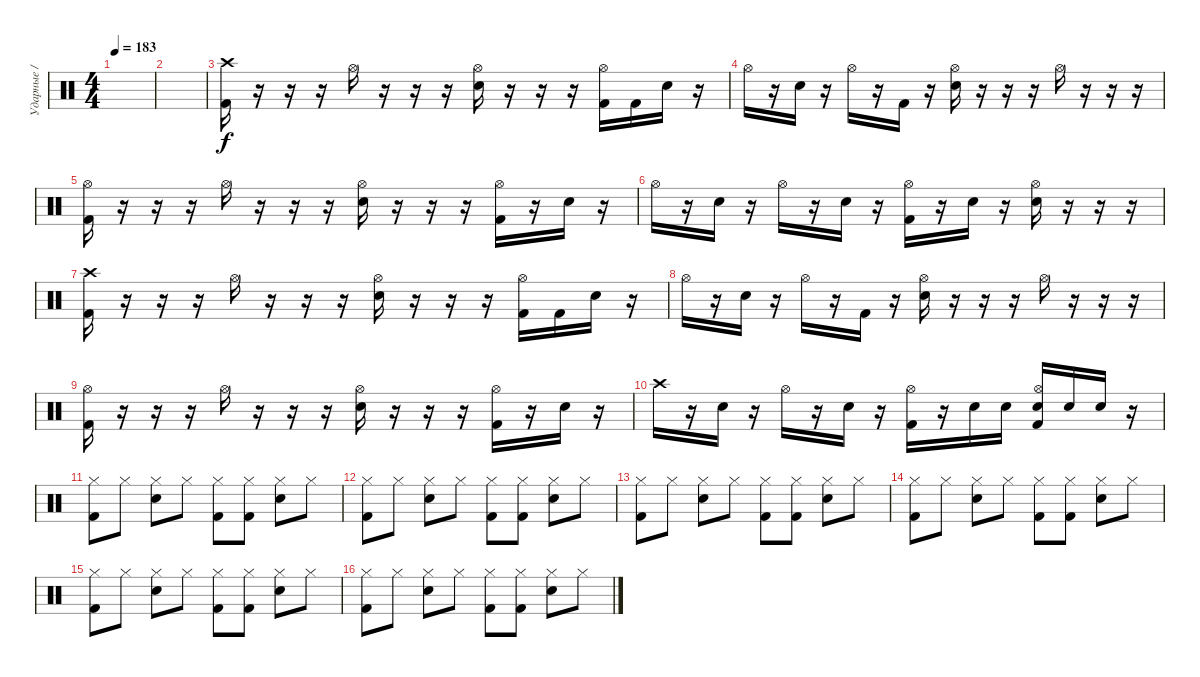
\track ("Ударные / Drums" "Ударные / ") {instrument percussion}
\staff {score}
\articulation defaults
\ts (4 4)
\tempo 183
\clef neutral
\ks c
|
|
("Crash high (hit)" "Kick (hit) 2").16 r.16 r.16 r.16 "Hi-Hat (open)".16 r.16 r.16 r.16 ("Hi-Hat (open)" "Snare (hit) 2").16 r.16 r.16 r.16 ("Hi-Hat (open)" "Kick (hit) 2").16 "Kick (hit) 2".16 "Snare (hit) 2".16 r.16 |
"Hi-Hat (open)".16 r.16 "Snare (hit) 2".16 r.16 "Hi-Hat (open)".16 r.16 "Kick (hit) 2".16 r.16 ("Hi-Hat (open)" "Snare (hit) 2").16 r.16 r.16 r.16 "Hi-Hat (open)".16 r.16 r.16 r.16 |
("Hi-Hat (open)" "Kick (hit) 2").16 r.16 r.16 r.16 "Hi-Hat (open)".16 r.16 r.16 r.16 ("Hi-Hat (open)" "Snare (hit) 2").16 r.16 r.16 r.16 ("Hi-Hat (open)" "Kick (hit) 2").16 r.16 "Snare (hit) 2".16 r.16 |
"Hi-Hat (open)".16 r.16 "Snare (hit) 2".16 r.16 "Hi-Hat (open)".16 r.16 "Snare (hit) 2".16 r.16 ("Hi-Hat (open)" "Kick (hit) 2").16 r.16 "Snare (hit) 2".16 r.16 ("Hi-Hat (open)" "Snare (hit) 2").16 r.16 r.16 r.16 |
("Crash high (hit)" "Kick (hit) 2").16 r.16 r.16 r.16 "Hi-Hat (open)".16 r.16 r.16 r.16 ("Hi-Hat (open)" "Snare (hit) 2").16 r.16 r.16 r.16 ("Hi-Hat (open)" "Kick (hit) 2").16 "Kick (hit) 2".16 "Snare (hit) 2".16 r.16 |
"Hi-Hat (open)".16 r.16 "Snare (hit) 2".16 r.16 "Hi-Hat (open)".16 r.16 "Kick (hit) 2".16 r.16 ("Hi-Hat (open)" "Snare (hit) 2").16 r.16 r.16 r.16 "Hi-Hat (open)".16 r.16 r.16 r.16 |
("Hi-Hat (open)" "Kick (hit) 2").16 r.16 r.16 r.16 "Hi-Hat (open)".16 r.16 r.16 r.16 ("Hi-Hat (open)" "Snare (hit) 2").16 r.16 r.16 r.16 ("Hi-Hat (open)" "Kick (hit) 2").16 r.16 "Snare (hit) 2".16 r.16 |
"Crash high (hit)".16 r.16 "Snare (hit) 2".16 r.16 "Hi-Hat (open)".16 r.16 "Snare (hit) 2".16 r.16 ("Hi-Hat (open)" "Kick (hit) 2").16 r.16 "Snare (hit) 2".16 "Snare (hit) 2".16 ("Hi-Hat (open)" "Snare (hit) 2" "Kick (hit) 2").16 "Snare (hit) 2".16 "Snare (hit) 2".16 r.16 |
("Hi-Hat (closed)" "Kick (hit) 2").8 "Hi-Hat (closed)".8 ("Hi-Hat (closed)" "Snare (hit) 2").8 "Hi-Hat (closed)".8 ("Hi-Hat (closed)" "Kick (hit) 2").8 ("Hi-Hat (closed)" "Kick (hit) 2").8 ("Hi-Hat (closed)" "Snare (hit) 2").8 "Hi-Hat (closed)".8 |
("Hi-Hat (closed)" "Kick (hit) 2").8 "Hi-Hat (closed)".8 ("Hi-Hat (closed)" "Snare (hit) 2").8 "Hi-Hat (closed)".8 ("Hi-Hat (closed)" "Kick (hit) 2").8 ("Hi-Hat (closed)" "Kick (hit) 2").8 ("Hi-Hat (closed)" "Snare (hit) 2").8 "Hi-Hat (closed)".8 |
("Hi-Hat (closed)" "Kick (hit) 2").8 "Hi-Hat (closed)".8 ("Hi-Hat (closed)" "Snare (hit) 2").8 "Hi-Hat (closed)".8 ("Hi-Hat (closed)" "Kick (hit) 2").8 ("Hi-Hat (closed)" "Kick (hit) 2").8 ("Hi-Hat (closed)" "Snare (hit) 2").8 "Hi-Hat (closed)".8 |
("Hi-Hat (closed)" "Kick (hit) 2").8 "Hi-Hat (closed)".8 ("Hi-Hat (closed)" "Snare (hit) 2").8 "Hi-Hat (closed)".8 ("Hi-Hat (closed)" "Kick (hit) 2").8 ("Hi-Hat (closed)" "Kick (hit) 2").8 ("Hi-Hat (closed)" "Snare (hit) 2").8 "Hi-Hat (closed)".8 |
("Hi-Hat (closed)" "Kick (hit) 2").8 "Hi-Hat (closed)".8 ("Hi-Hat (closed)" "Snare (hit) 2").8 "Hi-Hat (closed)".8 ("Hi-Hat (closed)" "Kick (hit) 2").8 ("Hi-Hat (closed)" "Kick (hit) 2").8 ("Hi-Hat (closed)" "Snare (hit) 2").8 "Hi-Hat (closed)".8 |
("Hi-Hat (closed)" "Kick (hit) 2").8 "Hi-Hat (closed)".8 ("Hi-Hat (closed)" "Snare (hit) 2").8 "Hi-Hat (closed)".8 ("Hi-Hat (closed)" "Kick (hit) 2").8 ("Hi-Hat (closed)" "Kick (hit) 2").8 ("Hi-Hat (closed)" "Snare (hit) 2").8 "Hi-Hat (closed)".8
